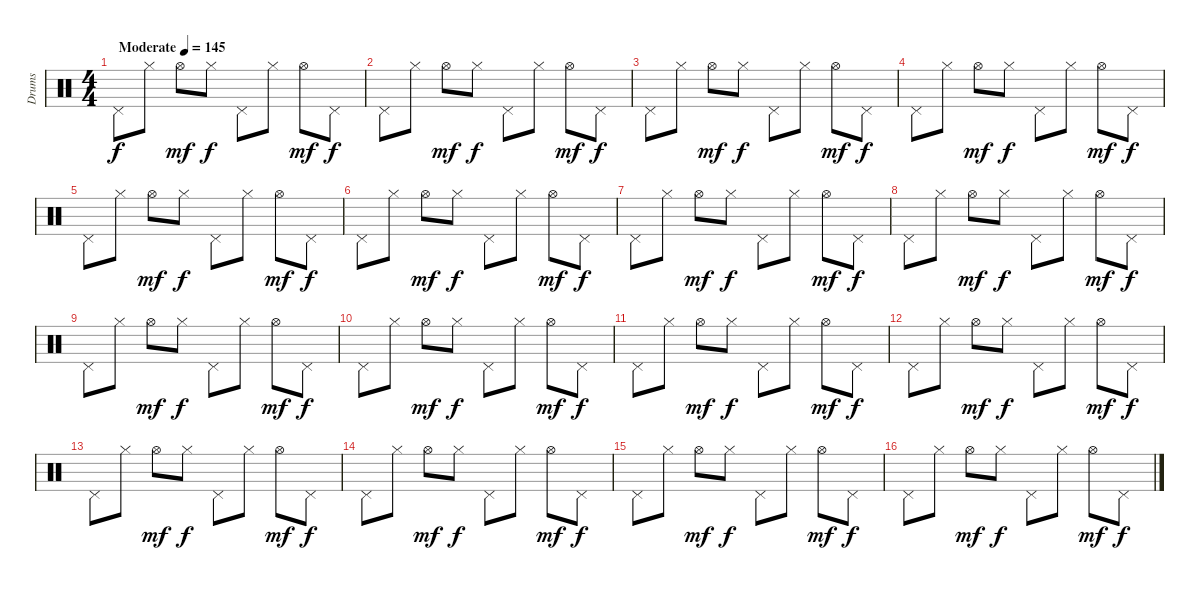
\track ("Drums" "Drums") {instrument percussion}
\staff {score}
\articulation defaults
\ts (4 4)
\tempo (145 "Moderate")
\clef neutral
\ks c "Pedal Hi-Hat (hit)".8{dy f} "Hi-Hat (closed)".8 "Hi-Hat (open)".8{dy mf} "Hi-Hat (closed)".8{dy f} "Pedal Hi-Hat (hit)".8 "Hi-Hat (closed)".8 "Hi-Hat (open)".8{dy mf} "Pedal Hi-Hat (hit)".8{dy f}
|
"Pedal Hi-Hat (hit)".8 "Hi-Hat (closed)".8 "Hi-Hat (open)".8{dy mf} "Hi-Hat (closed)".8{dy f} "Pedal Hi-Hat (hit)".8 "Hi-Hat (closed)".8 "Hi-Hat (open)".8{dy mf} "Pedal Hi-Hat (hit)".8{dy f} |
"Pedal Hi-Hat (hit)".8 "Hi-Hat (closed)".8 "Hi-Hat (open)".8{dy mf} "Hi-Hat (closed)".8{dy f} "Pedal Hi-Hat (hit)".8 "Hi-Hat (closed)".8 "Hi-Hat (open)".8{dy mf} "Pedal Hi-Hat (hit)".8{dy f} |
"Pedal Hi-Hat (hit)".8 "Hi-Hat (closed)".8 "Hi-Hat (open)".8{dy mf} "Hi-Hat (closed)".8{dy f} "Pedal Hi-Hat (hit)".8 "Hi-Hat (closed)".8 "Hi-Hat (open)".8{dy mf} "Pedal Hi-Hat (hit)".8{dy f} |
"Pedal Hi-Hat (hit)".8 "Hi-Hat (closed)".8 "Hi-Hat (open)".8{dy mf} "Hi-Hat (closed)".8{dy f} "Pedal Hi-Hat (hit)".8 "Hi-Hat (closed)".8 "Hi-Hat (open)".8{dy mf} "Pedal Hi-Hat (hit)".8{dy f} |
"Pedal Hi-Hat (hit)".8 "Hi-Hat (closed)".8 "Hi-Hat (open)".8{dy mf} "Hi-Hat (closed)".8{dy f} "Pedal Hi-Hat (hit)".8 "Hi-Hat (closed)".8 "Hi-Hat (open)".8{dy mf} "Pedal Hi-Hat (hit)".8{dy f} |
"Pedal Hi-Hat (hit)".8 "Hi-Hat (closed)".8 "Hi-Hat (open)".8{dy mf} "Hi-Hat (closed)".8{dy f} "Pedal Hi-Hat (hit)".8 "Hi-Hat (closed)".8 "Hi-Hat (open)".8{dy mf} "Pedal Hi-Hat (hit)".8{dy f} |
"Pedal Hi-Hat (hit)".8 "Hi-Hat (closed)".8 "Hi-Hat (open)".8{dy mf} "Hi-Hat (closed)".8{dy f} "Pedal Hi-Hat (hit)".8 "Hi-Hat (closed)".8 "Hi-Hat (open)".8{dy mf} "Pedal Hi-Hat (hit)".8{dy f} |
"Pedal Hi-Hat (hit)".8 "Hi-Hat (closed)".8 "Hi-Hat (open)".8{dy mf} "Hi-Hat (closed)".8{dy f} "Pedal Hi-Hat (hit)".8 "Hi-Hat (closed)".8 "Hi-Hat (open)".8{dy mf} "Pedal Hi-Hat (hit)".8{dy f} |
"Pedal Hi-Hat (hit)".8 "Hi-Hat (closed)".8 "Hi-Hat (open)".8{dy mf} "Hi-Hat (closed)".8{dy f} "Pedal Hi-Hat (hit)".8 "Hi-Hat (closed)".8 "Hi-Hat (open)".8{dy mf} "Pedal Hi-Hat (hit)".8{dy f} |
"Pedal Hi-Hat (hit)".8 "Hi-Hat (closed)".8 "Hi-Hat (open)".8{dy mf} "Hi-Hat (closed)".8{dy f} "Pedal Hi-Hat (hit)".8 "Hi-Hat (closed)".8 "Hi-Hat (open)".8{dy mf} "Pedal Hi-Hat (hit)".8{dy f} |
"Pedal Hi-Hat (hit)".8 "Hi-Hat (closed)".8 "Hi-Hat (open)".8{dy mf} "Hi-Hat (closed)".8{dy f} "Pedal Hi-Hat (hit)".8 "Hi-Hat (closed)".8 "Hi-Hat (open)".8{dy mf} "Pedal Hi-Hat (hit)".8{dy f} |
"Pedal Hi-Hat (hit)".8 "Hi-Hat (closed)".8 "Hi-Hat (open)".8{dy mf} "Hi-Hat (closed)".8{dy f} "Pedal Hi-Hat (hit)".8 "Hi-Hat (closed)".8 "Hi-Hat (open)".8{dy mf} "Pedal Hi-Hat (hit)".8{dy f} |
"Pedal Hi-Hat (hit)".8 "Hi-Hat (closed)".8 "Hi-Hat (open)".8{dy mf} "Hi-Hat (closed)".8{dy f} "Pedal Hi-Hat (hit)".8 "Hi-Hat (closed)".8 "Hi-Hat (open)".8{dy mf} "Pedal Hi-Hat (hit)".8{dy f} |
"Pedal Hi-Hat (hit)".8 "Hi-Hat (closed)".8 "Hi-Hat (open)".8{dy mf} "Hi-Hat (closed)".8{dy f} "Pedal Hi-Hat (hit)".8 "Hi-Hat (closed)".8 "Hi-Hat (open)".8{dy mf} "Pedal Hi-Hat (hit)".8{dy f} |
"Pedal Hi-Hat (hit)".8 "Hi-Hat (closed)".8 "Hi-Hat (open)".8{dy mf} "Hi-Hat (closed)".8{dy f} "Pedal Hi-Hat (hit)".8 "Hi-Hat (closed)".8 "Hi-Hat (open)".8{dy mf} "Pedal Hi-Hat (hit)".8{dy f}
